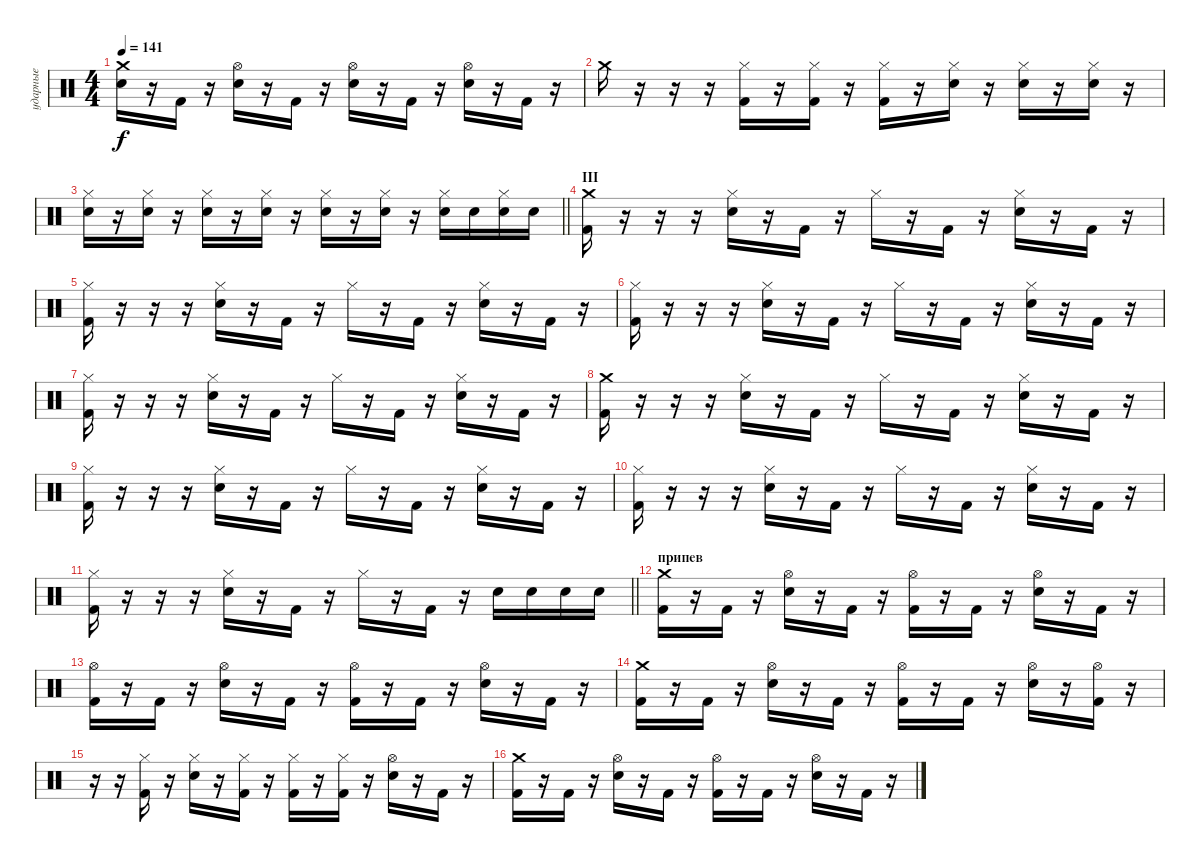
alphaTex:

\track ("ударные" "ударные") {instrument percussion}
\staff {score}
\articulation defaults
\ts (4 4)
\tempo 141
\clef neutral
\ks c
("Snare (hit) 2" "Crash medium (hit)").16{dy f} r.16 "Kick (hit) 2".16 r.16 ("Snare (hit) 2" "Hi-Hat (open)").16 r.16 "Kick (hit) 2".16 r.16 ("Snare (hit) 2" "Hi-Hat (open)").16 r.16 "Kick (hit) 2".16 r.16 ("Snare (hit) 2" "Hi-Hat (open)").16 r.16 "Kick (hit) 2".16 r.16 |
"Crash medium (hit)".16 r.16 r.16 r.16 ("Kick (hit) 2" "Hi-Hat (closed)").16 r.16 ("Kick (hit) 2" "Hi-Hat (closed)").16 r.16 ("Kick (hit) 2" "Hi-Hat (closed)").16 r.16 ("Snare (hit) 2" "Hi-Hat (closed)").16 r.16 ("Snare (hit) 2" "Hi-Hat (closed)").16 r.16 ("Snare (hit) 2" "Hi-Hat (closed)").16 r.16 |
\barLineRight lightlight
("Snare (hit) 2" "Hi-Hat (closed)").16 r.16 ("Snare (hit) 2" "Hi-Hat (closed)").16 r.16 ("Snare (hit) 2" "Hi-Hat (closed)").16 r.16 ("Snare (hit) 2" "Hi-Hat (closed)").16 r.16 ("Snare (hit) 2" "Hi-Hat (closed)").16 r.16 ("Snare (hit) 2" "Hi-Hat (closed)").16 r.16 ("Snare (hit) 2" "Hi-Hat (closed)").16 "Snare (hit) 2".16 ("Snare (hit) 2" "Hi-Hat (closed)").16 "Snare (hit) 2".16 |
\section ("" "III")
("Kick (hit) 2" "Crash medium (hit)").16 r.16 r.16 r.16 ("Snare (hit) 2" "Hi-Hat (closed)").16 r.16 "Kick (hit) 2".16 r.16 "Hi-Hat (closed)".16 r.16 "Kick (hit) 2".16 r.16 ("Snare (hit) 2" "Hi-Hat (closed)").16 r.16 "Kick (hit) 2".16 r.16 |
("Kick (hit) 2" "Hi-Hat (closed)").16 r.16 r.16 r.16 ("Snare (hit) 2" "Hi-Hat (closed)").16 r.16 "Kick (hit) 2".16 r.16 "Hi-Hat (closed)".16 r.16 "Kick (hit) 2".16 r.16 ("Snare (hit) 2" "Hi-Hat (closed)").16 r.16 "Kick (hit) 2".16 r.16 |
("Kick (hit) 2" "Hi-Hat (closed)").16 r.16 r.16 r.16 ("Snare (hit) 2" "Hi-Hat (closed)").16 r.16 "Kick (hit) 2".16 r.16 "Hi-Hat (closed)".16 r.16 "Kick (hit) 2".16 r.16 ("Snare (hit) 2" "Hi-Hat (closed)").16 r.16 "Kick (hit) 2".16 r.16 |
("Kick (hit) 2" "Hi-Hat (closed)").16 r.16 r.16 r.16 ("Snare (hit) 2" "Hi-Hat (closed)").16 r.16 "Kick (hit) 2".16 r.16 "Hi-Hat (closed)".16 r.16 "Kick (hit) 2".16 r.16 ("Snare (hit) 2" "Hi-Hat (closed)").16 r.16 "Kick (hit) 2".16 r.16 |
("Kick (hit) 2" "Crash medium (hit)").16 r.16 r.16 r.16 ("Snare (hit) 2" "Hi-Hat (closed)").16 r.16 "Kick (hit) 2".16 r.16 "Hi-Hat (closed)".16 r.16 "Kick (hit) 2".16 r.16 ("Snare (hit) 2" "Hi-Hat (closed)").16 r.16 "Kick (hit) 2".16 r.16 |
("Kick (hit) 2" "Hi-Hat (closed)").16 r.16 r.16 r.16 ("Snare (hit) 2" "Hi-Hat (closed)").16 r.16 "Kick (hit) 2".16 r.16 "Hi-Hat (closed)".16 r.16 "Kick (hit) 2".16 r.16 ("Snare (hit) 2" "Hi-Hat (closed)").16 r.16 "Kick (hit) 2".16 r.16 |
("Kick (hit) 2" "Hi-Hat (closed)").16 r.16 r.16 r.16 ("Snare (hit) 2" "Hi-Hat (closed)").16 r.16 "Kick (hit) 2".16 r.16 "Hi-Hat (closed)".16 r.16 "Kick (hit) 2".16 r.16 ("Snare (hit) 2" "Hi-Hat (closed)").16 r.16 "Kick (hit) 2".16 r.16 |
\barLineRight lightlight
("Kick (hit) 2" "Hi-Hat (closed)").16 r.16 r.16 r.16 ("Snare (hit) 2" "Hi-Hat (closed)").16 r.16 "Kick (hit) 2".16 r.16 "Hi-Hat (closed)".16 r.16 "Kick (hit) 2".16 r.16 "Snare (hit) 2".16 "Snare (hit) 2".16 "Snare (hit) 2".16 "Snare (hit) 2".16 |
\section ("" "припев")
("Kick (hit) 2" "Crash medium (hit)").16 r.16 "Kick (hit) 2".16 r.16 ("Snare (hit) 2" "Hi-Hat (open)").16 r.16 "Kick (hit) 2".16 r.16 ("Kick (hit) 2" "Hi-Hat (open)").16 r.16 "Kick (hit) 2".16 r.16 ("Snare (hit) 2" "Hi-Hat (open)").16 r.16 "Kick (hit) 2".16 r.16 |
("Kick (hit) 2" "Hi-Hat (open)").16 r.16 "Kick (hit) 2".16 r.16 ("Snare (hit) 2" "Hi-Hat (open)").16 r.16 "Kick (hit) 2".16 r.16 ("Kick (hit) 2" "Hi-Hat (open)").16 r.16 "Kick (hit) 2".16 r.16 ("Snare (hit) 2" "Hi-Hat (open)").16 r.16 "Kick (hit) 2".16 r.16 |
("Kick (hit) 2" "Crash medium (hit)").16 r.16 "Kick (hit) 2".16 r.16 ("Snare (hit) 2" "Hi-Hat (open)").16 r.16 "Kick (hit) 2".16 r.16 ("Kick (hit) 2" "Hi-Hat (open)").16 r.16 "Kick (hit) 2".16 r.16 ("Electric Snare (hit)" "Hi-Hat (open)").16 r.16 ("Kick (hit) 2" "Hi-Hat (open)").16 r.16 |
r.16 r.16 ("Kick (hit) 2" "Hi-Hat (closed)").16 r.16 ("Snare (hit) 2" "Hi-Hat (closed)").16 r.16 ("Kick (hit) 2" "Hi-Hat (closed)").16 r.16 ("Kick (hit) 2" "Hi-Hat (closed)").16 r.16 ("Kick (hit) 2" "Hi-Hat (closed)").16 r.16 ("Snare (hit) 2" "Hi-Hat (open)").16 r.16 "Kick (hit) 2".16 r.16 |
("Kick (hit) 2" "Crash medium (hit)").16 r.16 "Kick (hit) 2".16 r.16 ("Snare (hit) 2" "Hi-Hat (open)").16 r.16 "Kick (hit) 2".16 r.16 ("Kick (hit) 2" "Hi-Hat (open)").16 r.16 "Kick (hit) 2".16 r.16 ("Snare (hit) 2" "Hi-Hat (open)").16 r.16 "Kick (hit) 2".16 r.16
